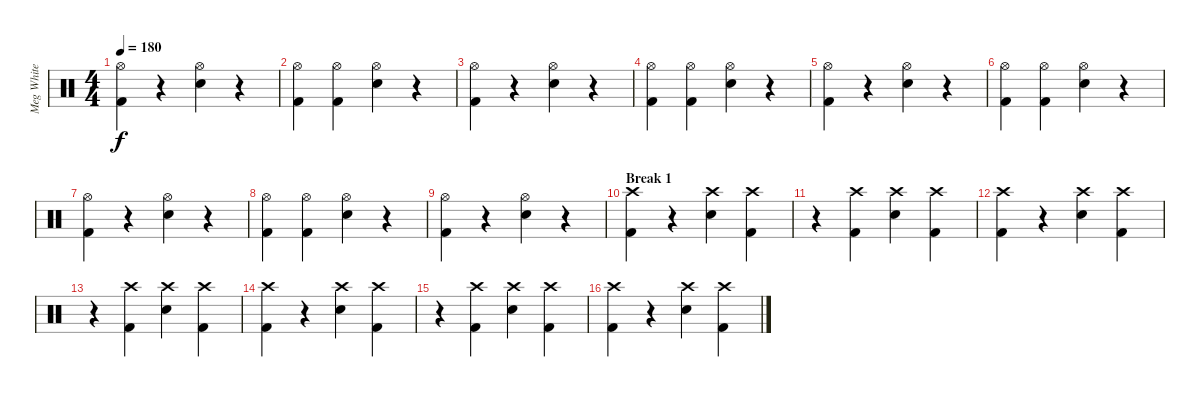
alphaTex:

\track ("Meg White" "Meg White") {instrument percussion}
\staff {score}
\articulation defaults
\ts (4 4)
\tempo 180
\clef neutral
\ks c
("Hi-Hat (open)" "Kick (hit) 2").4{dy f} r.4 ("Hi-Hat (open)" "Snare (hit) 2").4 r.4 |
("Hi-Hat (open)" "Kick (hit) 2").4 ("Hi-Hat (open)" "Kick (hit) 2").4 ("Hi-Hat (open)" "Snare (hit) 2").4 r.4 |
("Hi-Hat (open)" "Kick (hit) 2").4 r.4 ("Hi-Hat (open)" "Snare (hit) 2").4 r.4 |
("Hi-Hat (open)" "Kick (hit) 2").4 ("Hi-Hat (open)" "Kick (hit) 2").4 ("Hi-Hat (open)" "Snare (hit) 2").4 r.4 |
("Hi-Hat (open)" "Kick (hit) 2").4 r.4 ("Hi-Hat (open)" "Snare (hit) 2").4 r.4 |
("Hi-Hat (open)" "Kick (hit) 2").4 ("Hi-Hat (open)" "Kick (hit) 2").4 ("Hi-Hat (open)" "Snare (hit) 2").4 r.4 |
("Hi-Hat (open)" "Kick (hit) 2").4 r.4 ("Hi-Hat (open)" "Snare (hit) 2").4 r.4 |
("Hi-Hat (open)" "Kick (hit) 2").4 ("Hi-Hat (open)" "Kick (hit) 2").4 ("Hi-Hat (open)" "Snare (hit) 2").4 r.4 |
("Hi-Hat (open)" "Kick (hit) 2").4 r.4 ("Hi-Hat (open)" "Snare (hit) 2").4 r.4 |
\section ("" "Break 1")
("Crash high (hit)" "Kick (hit) 2").4 r.4 ("Crash high (hit)" "Snare (hit) 2").4 ("Crash high (hit)" "Kick (hit) 2").4 |
r.4 ("Crash high (hit)" "Kick (hit) 2").4 ("Crash high (hit)" "Snare (hit) 2").4 ("Crash high (hit)" "Kick (hit) 2").4 |
("Crash high (hit)" "Kick (hit) 2").4 r.4 ("Crash high (hit)" "Snare (hit) 2").4 ("Crash high (hit)" "Kick (hit) 2").4 |
r.4 ("Crash high (hit)" "Kick (hit) 2").4 ("Crash high (hit)" "Snare (hit) 2").4 ("Crash high (hit)" "Kick (hit) 2").4 |
("Crash high (hit)" "Kick (hit) 2").4 r.4 ("Crash high (hit)" "Snare (hit) 2").4 ("Crash high (hit)" "Kick (hit) 2").4 |
r.4 ("Crash high (hit)" "Kick (hit) 2").4 ("Crash high (hit)" "Snare (hit) 2").4 ("Crash high (hit)" "Kick (hit) 2").4 |
("Crash high (hit)" "Kick (hit) 2").4 r.4 ("Crash high (hit)" "Snare (hit) 2").4 ("Crash high (hit)" "Kick (hit) 2").4
